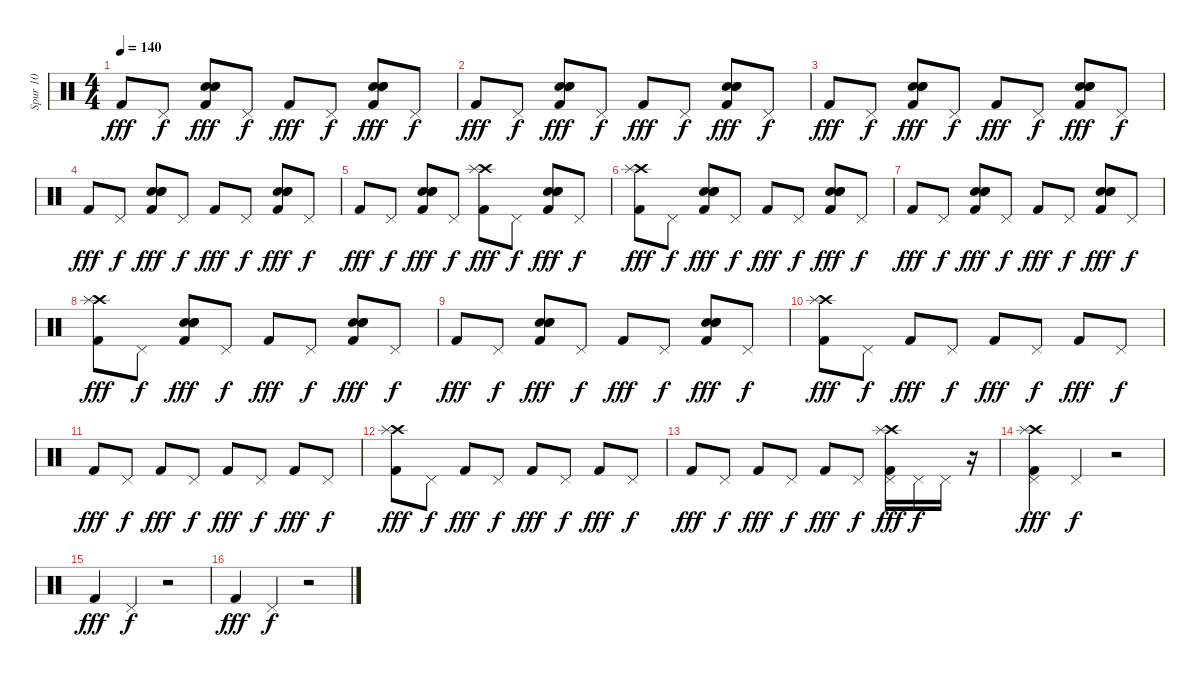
\track ("Spur 10" "Spur 10") {instrument percussion}
\staff {score}
\articulation defaults
\ts (4 4)
\tempo 140
\clef neutral
\ks c "Kick (hit) 2".8{dy fff} "Pedal Hi-Hat (hit)".8{dy f}
("Electric Snare (hit)" "Hand Clap (hit)" "Snare (hit) 2" "Kick (hit) 2").8{dy fff} "Pedal Hi-Hat (hit)".8{dy f} "Kick (hit) 2".8{dy fff} "Pedal Hi-Hat (hit)".8{dy f} ("Hand Clap (hit)" "Electric Snare (hit)" "Snare (hit) 2" "Kick (hit) 2").8{dy fff} "Pedal Hi-Hat (hit)".8{dy f} |
"Kick (hit) 2".8{dy fff} "Pedal Hi-Hat (hit)".8{dy f} ("Hand Clap (hit)" "Electric Snare (hit)" "Snare (hit) 2" "Kick (hit) 2").8{dy fff} "Pedal Hi-Hat (hit)".8{dy f} "Kick (hit) 2".8{dy fff} "Pedal Hi-Hat (hit)".8{dy f} ("Electric Snare (hit)" "Hand Clap (hit)" "Snare (hit) 2" "Kick (hit) 2").8{dy fff} "Pedal Hi-Hat (hit)".8{dy f} |
"Kick (hit) 2".8{dy fff} "Pedal Hi-Hat (hit)".8{dy f} ("Hand Clap (hit)" "Electric Snare (hit)" "Snare (hit) 2" "Kick (hit) 2").8{dy fff} "Pedal Hi-Hat (hit)".8{dy f} "Kick (hit) 2".8{dy fff} "Pedal Hi-Hat (hit)".8{dy f} ("Hand Clap (hit)" "Electric Snare (hit)" "Snare (hit) 2" "Kick (hit) 2").8{dy fff} "Pedal Hi-Hat (hit)".8{dy f} |
"Kick (hit) 2".8{dy fff} "Pedal Hi-Hat (hit)".8{dy f} ("Hand Clap (hit)" "Electric Snare (hit)" "Snare (hit) 2" "Kick (hit) 2").8{dy fff} "Pedal Hi-Hat (hit)".8{dy f} "Kick (hit) 2".8{dy fff} "Pedal Hi-Hat (hit)".8{dy f} ("Electric Snare (hit)" "Hand Clap (hit)" "Snare (hit) 2" "Kick (hit) 2").8{dy fff} "Pedal Hi-Hat (hit)".8{dy f} |
"Kick (hit) 2".8{dy fff} "Pedal Hi-Hat (hit)".8{dy f} ("Hand Clap (hit)" "Electric Snare (hit)" "Snare (hit) 2" "Kick (hit) 2").8{dy fff} "Pedal Hi-Hat (hit)".8{dy f} ("Crash high (hit)" "Splash (hit)" "Kick (hit) 2").8{dy fff} "Pedal Hi-Hat (hit)".8{dy f} ("Hand Clap (hit)" "Electric Snare (hit)" "Snare (hit) 2" "Kick (hit) 2").8{dy fff} "Pedal Hi-Hat (hit)".8{dy f} |
("Crash high (hit)" "Splash (hit)" "Kick (hit) 2").8{dy fff} "Pedal Hi-Hat (hit)".8{dy f} ("Hand Clap (hit)" "Electric Snare (hit)" "Snare (hit) 2" "Kick (hit) 2").8{dy fff} "Pedal Hi-Hat (hit)".8{dy f} "Kick (hit) 2".8{dy fff} "Pedal Hi-Hat (hit)".8{dy f} ("Electric Snare (hit)" "Hand Clap (hit)" "Snare (hit) 2" "Kick (hit) 2").8{dy fff} "Pedal Hi-Hat (hit)".8{dy f} |
"Kick (hit) 2".8{dy fff} "Pedal Hi-Hat (hit)".8{dy f} ("Hand Clap (hit)" "Electric Snare (hit)" "Snare (hit) 2" "Kick (hit) 2").8{dy fff} "Pedal Hi-Hat (hit)".8{dy f} "Kick (hit) 2".8{dy fff} "Pedal Hi-Hat (hit)".8{dy f} ("Hand Clap (hit)" "Electric Snare (hit)" "Snare (hit) 2" "Kick (hit) 2").8{dy fff} "Pedal Hi-Hat (hit)".8{dy f} |
("Crash high (hit)" "Splash (hit)" "Kick (hit) 2").8{dy fff} "Pedal Hi-Hat (hit)".8{dy f} ("Hand Clap (hit)" "Electric Snare (hit)" "Snare (hit) 2" "Kick (hit) 2").8{dy fff} "Pedal Hi-Hat (hit)".8{dy f} "Kick (hit) 2".8{dy fff} "Pedal Hi-Hat (hit)".8{dy f} ("Hand Clap (hit)" "Electric Snare (hit)" "Snare (hit) 2" "Kick (hit) 2").8{dy fff} "Pedal Hi-Hat (hit)".8{dy f} |
"Kick (hit) 2".8{dy fff} "Pedal Hi-Hat (hit)".8{dy f} ("Hand Clap (hit)" "Electric Snare (hit)" "Snare (hit) 2" "Kick (hit) 2").8{dy fff} "Pedal Hi-Hat (hit)".8{dy f} "Kick (hit) 2".8{dy fff} "Pedal Hi-Hat (hit)".8{dy f} ("Hand Clap (hit)" "Electric Snare (hit)" "Snare (hit) 2" "Kick (hit) 2").8{dy fff} "Pedal Hi-Hat (hit)".8{dy f} |
("Crash high (hit)" "Splash (hit)" "Kick (hit) 2").8{dy fff} "Pedal Hi-Hat (hit)".8{dy f} "Kick (hit) 2".8{dy fff} "Pedal Hi-Hat (hit)".8{dy f} "Kick (hit) 2".8{dy fff} "Pedal Hi-Hat (hit)".8{dy f} "Kick (hit) 2".8{dy fff} "Pedal Hi-Hat (hit)".8{dy f} |
"Kick (hit) 2".8{dy fff} "Pedal Hi-Hat (hit)".8{dy f} "Kick (hit) 2".8{dy fff} "Pedal Hi-Hat (hit)".8{dy f} "Kick (hit) 2".8{dy fff} "Pedal Hi-Hat (hit)".8{dy f} "Kick (hit) 2".8{dy fff} "Pedal Hi-Hat (hit)".8{dy f} |
("Crash high (hit)" "Splash (hit)" "Kick (hit) 2").8{dy fff} "Pedal Hi-Hat (hit)".8{dy f} "Kick (hit) 2".8{dy fff} "Pedal Hi-Hat (hit)".8{dy f} "Kick (hit) 2".8{dy fff} "Pedal Hi-Hat (hit)".8{dy f} "Kick (hit) 2".8{dy fff} "Pedal Hi-Hat (hit)".8{dy f} |
"Kick (hit) 2".8{dy fff} "Pedal Hi-Hat (hit)".8{dy f} "Kick (hit) 2".8{dy fff} "Pedal Hi-Hat (hit)".8{dy f} "Kick (hit) 2".8{dy fff} "Pedal Hi-Hat (hit)".8{dy f} ("Crash high (hit)" "Splash (hit)" "Pedal Hi-Hat (hit)" "Kick (hit) 2").16{dy fff} "Pedal Hi-Hat (hit)".16{dy f} "Pedal Hi-Hat (hit)".16 r.16 |
("Crash high (hit)" "Splash (hit)" "Pedal Hi-Hat (hit)" "Kick (hit) 2").4{dy fff} "Pedal Hi-Hat (hit)".4{dy f} r.2 |
"Kick (hit) 2".4{dy fff} "Pedal Hi-Hat (hit)".4{dy f} r.2 |
"Kick (hit) 2".4{dy fff} "Pedal Hi-Hat (hit)".4{dy f} r.2
